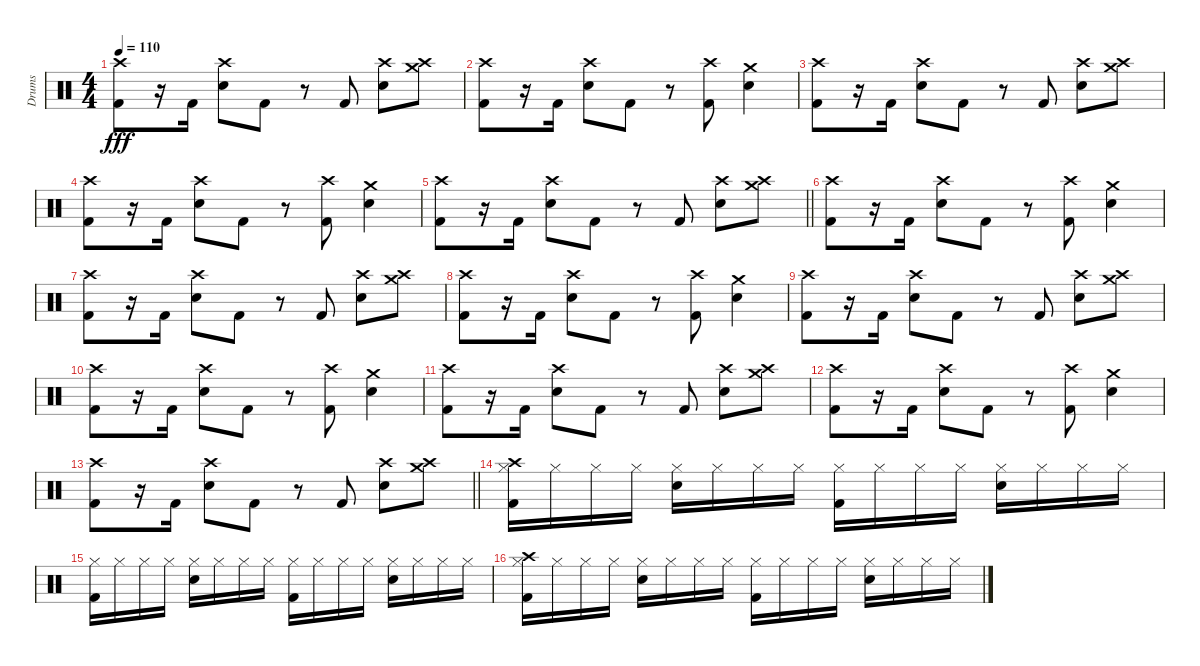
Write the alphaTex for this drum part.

\track ("Drums" "Drums") {instrument percussion}
\staff {score}
\articulation defaults
\ts (4 4)
\tempo 110
\clef neutral
\ks c
("Crash high (hit)" "Kick (hit) 2").8{dy fff} r.16 "Kick (hit) 2".16 ("Crash high (hit)" "Electric Snare (hit)").8 "Kick (hit) 2".8 r.8 "Kick (hit) 2".8 ("Crash high (hit)" "Electric Snare (hit)").8 ("Crash high (hit)" "Crash medium (hit)").8 |
("Crash high (hit)" "Kick (hit) 2").8 r.16 "Kick (hit) 2".16 ("Crash high (hit)" "Electric Snare (hit)").8 "Kick (hit) 2".8 r.8 ("Crash high (hit)" "Kick (hit) 2").8 ("Crash medium (hit)" "Electric Snare (hit)").4 |
("Crash high (hit)" "Kick (hit) 2").8 r.16 "Kick (hit) 2".16 ("Crash high (hit)" "Electric Snare (hit)").8 "Kick (hit) 2".8 r.8 "Kick (hit) 2".8 ("Crash high (hit)" "Electric Snare (hit)").8 ("Crash high (hit)" "Crash medium (hit)").8 |
("Crash high (hit)" "Kick (hit) 2").8 r.16 "Kick (hit) 2".16 ("Crash high (hit)" "Electric Snare (hit)").8 "Kick (hit) 2".8 r.8 ("Crash high (hit)" "Kick (hit) 2").8 ("Crash medium (hit)" "Electric Snare (hit)").4 |
\barLineRight lightlight
("Crash high (hit)" "Kick (hit) 2").8 r.16 "Kick (hit) 2".16 ("Crash high (hit)" "Electric Snare (hit)").8 "Kick (hit) 2".8 r.8 "Kick (hit) 2".8 ("Crash high (hit)" "Electric Snare (hit)").8 ("Crash high (hit)" "Crash medium (hit)").8 |
("Crash high (hit)" "Kick (hit) 2").8 r.16 "Kick (hit) 2".16 ("Crash high (hit)" "Electric Snare (hit)").8 "Kick (hit) 2".8 r.8 ("Crash high (hit)" "Kick (hit) 2").8 ("Crash medium (hit)" "Electric Snare (hit)").4 |
("Crash high (hit)" "Kick (hit) 2").8 r.16 "Kick (hit) 2".16 ("Crash high (hit)" "Electric Snare (hit)").8 "Kick (hit) 2".8 r.8 "Kick (hit) 2".8 ("Crash high (hit)" "Electric Snare (hit)").8 ("Crash high (hit)" "Crash medium (hit)").8 |
("Crash high (hit)" "Kick (hit) 2").8 r.16 "Kick (hit) 2".16 ("Crash high (hit)" "Electric Snare (hit)").8 "Kick (hit) 2".8 r.8 ("Crash high (hit)" "Kick (hit) 2").8 ("Crash medium (hit)" "Electric Snare (hit)").4 |
("Crash high (hit)" "Kick (hit) 2").8 r.16 "Kick (hit) 2".16 ("Crash high (hit)" "Electric Snare (hit)").8 "Kick (hit) 2".8 r.8 "Kick (hit) 2".8 ("Crash high (hit)" "Electric Snare (hit)").8 ("Crash high (hit)" "Crash medium (hit)").8 |
("Crash high (hit)" "Kick (hit) 2").8 r.16 "Kick (hit) 2".16 ("Crash high (hit)" "Electric Snare (hit)").8 "Kick (hit) 2".8 r.8 ("Crash high (hit)" "Kick (hit) 2").8 ("Crash medium (hit)" "Electric Snare (hit)").4 |
("Crash high (hit)" "Kick (hit) 2").8 r.16 "Kick (hit) 2".16 ("Crash high (hit)" "Electric Snare (hit)").8 "Kick (hit) 2".8 r.8 "Kick (hit) 2".8 ("Crash high (hit)" "Electric Snare (hit)").8 ("Crash high (hit)" "Crash medium (hit)").8 |
("Crash high (hit)" "Kick (hit) 2").8 r.16 "Kick (hit) 2".16 ("Crash high (hit)" "Electric Snare (hit)").8 "Kick (hit) 2".8 r.8 ("Crash high (hit)" "Kick (hit) 2").8 ("Crash medium (hit)" "Electric Snare (hit)").4 |
\barLineRight lightlight
("Crash high (hit)" "Kick (hit) 2").8 r.16 "Kick (hit) 2".16 ("Crash high (hit)" "Electric Snare (hit)").8 "Kick (hit) 2".8 r.8 "Kick (hit) 2".8 ("Crash high (hit)" "Electric Snare (hit)").8 ("Crash high (hit)" "Crash medium (hit)").8 |
("Crash high (hit)" "Hi-Hat (closed)" "Kick (hit) 2").16 "Hi-Hat (closed)".16 "Hi-Hat (closed)".16 "Hi-Hat (closed)".16 ("Hi-Hat (closed)" "Electric Snare (hit)").16 "Hi-Hat (closed)".16 "Hi-Hat (closed)".16 "Hi-Hat (closed)".16 ("Hi-Hat (closed)" "Kick (hit) 2").16 "Hi-Hat (closed)".16 "Hi-Hat (closed)".16 "Hi-Hat (closed)".16 ("Hi-Hat (closed)" "Electric Snare (hit)").16 "Hi-Hat (closed)".16 "Hi-Hat (closed)".16 "Hi-Hat (closed)".16 |
("Hi-Hat (closed)" "Kick (hit) 2").16 "Hi-Hat (closed)".16 "Hi-Hat (closed)".16 "Hi-Hat (closed)".16 ("Hi-Hat (closed)" "Electric Snare (hit)").16 "Hi-Hat (closed)".16 "Hi-Hat (closed)".16 "Hi-Hat (closed)".16 ("Hi-Hat (closed)" "Kick (hit) 2").16 "Hi-Hat (closed)".16 "Hi-Hat (closed)".16 "Hi-Hat (closed)".16 ("Hi-Hat (closed)" "Electric Snare (hit)").16 "Hi-Hat (closed)".16 "Hi-Hat (closed)".16 "Hi-Hat (closed)".16 |
("Crash high (hit)" "Hi-Hat (closed)" "Kick (hit) 2").16 "Hi-Hat (closed)".16 "Hi-Hat (closed)".16 "Hi-Hat (closed)".16 ("Hi-Hat (closed)" "Electric Snare (hit)").16 "Hi-Hat (closed)".16 "Hi-Hat (closed)".16 "Hi-Hat (closed)".16 ("Hi-Hat (closed)" "Kick (hit) 2").16 "Hi-Hat (closed)".16 "Hi-Hat (closed)".16 "Hi-Hat (closed)".16 ("Hi-Hat (closed)" "Electric Snare (hit)").16 "Hi-Hat (closed)".16 "Hi-Hat (closed)".16 "Hi-Hat (closed)".16
